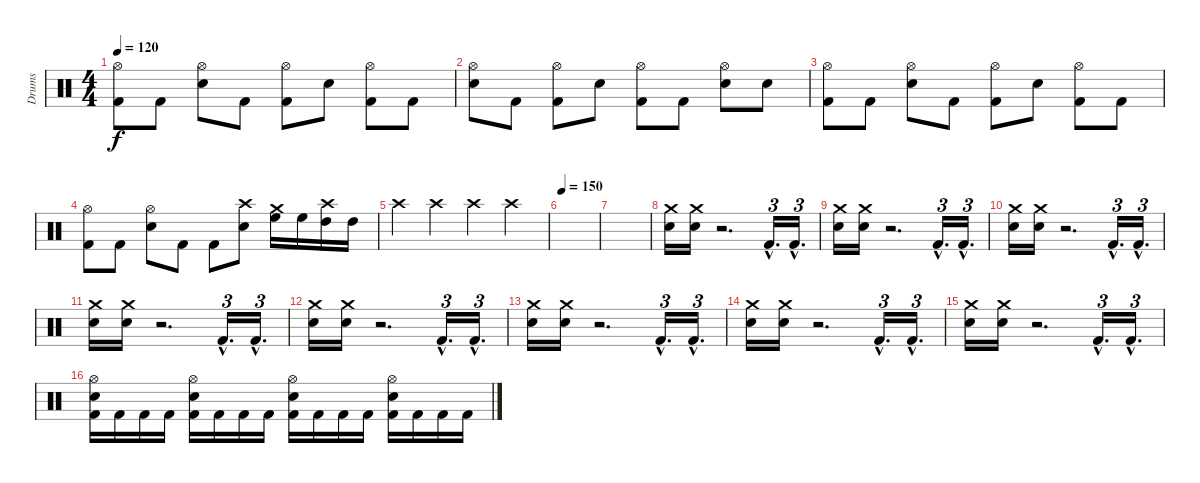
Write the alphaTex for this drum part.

\track ("Drums" "Drums") {instrument percussion}
\staff {score}
\articulation defaults
\ts (4 4)
\tempo 120
\clef neutral
\ks c
("Hi-Hat (open)" "Kick (hit) 2").8{dy f} "Kick (hit) 2".8 ("Hi-Hat (open)" "Snare (hit) 2").8 "Kick (hit) 2".8 ("Hi-Hat (open)" "Kick (hit) 2").8 "Snare (hit) 2".8 ("Hi-Hat (open)" "Kick (hit) 2").8 "Kick (hit) 2".8 |
("Hi-Hat (open)" "Snare (hit) 2").8 "Kick (hit) 2".8 ("Hi-Hat (open)" "Kick (hit) 2").8 "Snare (hit) 2".8 ("Hi-Hat (open)" "Kick (hit) 2").8 "Kick (hit) 2".8 ("Hi-Hat (open)" "Snare (hit) 2").8 "Snare (hit) 2".8 |
("Hi-Hat (open)" "Kick (hit) 2").8 "Kick (hit) 2".8 ("Hi-Hat (open)" "Snare (hit) 2").8 "Kick (hit) 2".8 ("Hi-Hat (open)" "Kick (hit) 2").8 "Snare (hit) 2".8 ("Hi-Hat (open)" "Kick (hit) 2").8 "Kick (hit) 2".8 |
("Hi-Hat (open)" "Kick (hit) 2").8 "Kick (hit) 2".8 ("Hi-Hat (open)" "Snare (hit) 2").8 "Kick (hit) 2".8 "Kick (hit) 2".8 ("Crash high (hit)" "Snare (hit) 2").8 ("Crash medium (hit)" "High Floor Tom (hit)").16 "High Floor Tom (hit)".16 ("Crash high (hit)" "High Tom (hit)").16 "High Tom (hit)".16 |
"Crash high (hit)".4 "Crash high (hit)".4 "Crash high (hit)".4 "Crash high (hit)".4 |
\tempo 150
|
|
("Crash medium (hit)" "Snare (hit) 2").16 ("Crash medium (hit)" "Snare (hit) 2").16 r.2{d} "Kick (hit) 2"{hac}.16{d tu (3 2)} "Kick (hit) 2"{hac}.16{d tu (3 2)} |
("Crash medium (hit)" "Snare (hit) 2").16 ("Crash medium (hit)" "Snare (hit) 2").16 r.2{d} "Kick (hit) 2"{hac}.16{d tu (3 2)} "Kick (hit) 2"{hac}.16{d tu (3 2)} |
("Crash medium (hit)" "Snare (hit) 2").16 ("Crash medium (hit)" "Snare (hit) 2").16 r.2{d} "Kick (hit) 2"{hac}.16{d tu (3 2)} "Kick (hit) 2"{hac}.16{d tu (3 2)} |
("Crash medium (hit)" "Snare (hit) 2").16 ("Crash medium (hit)" "Snare (hit) 2").16 r.2{d} "Kick (hit) 2"{hac}.16{d tu (3 2)} "Kick (hit) 2"{hac}.16{d tu (3 2)} |
("Crash medium (hit)" "Snare (hit) 2").16 ("Crash medium (hit)" "Snare (hit) 2").16 r.2{d} "Kick (hit) 2"{hac}.16{d tu (3 2)} "Kick (hit) 2"{hac}.16{d tu (3 2)} |
("Crash medium (hit)" "Snare (hit) 2").16 ("Crash medium (hit)" "Snare (hit) 2").16 r.2{d} "Kick (hit) 2"{hac}.16{d tu (3 2)} "Kick (hit) 2"{hac}.16{d tu (3 2)} |
("Crash medium (hit)" "Snare (hit) 2").16 ("Crash medium (hit)" "Snare (hit) 2").16 r.2{d} "Kick (hit) 2"{hac}.16{d tu (3 2)} "Kick (hit) 2"{hac}.16{d tu (3 2)} |
("Crash medium (hit)" "Snare (hit) 2").16 ("Crash medium (hit)" "Snare (hit) 2").16 r.2{d} "Kick (hit) 2"{hac}.16{d tu (3 2)} "Kick (hit) 2"{hac}.16{d tu (3 2)} |
("Hi-Hat (open)" "Snare (hit) 2" "Kick (hit) 2").16 "Kick (hit) 2".16 "Kick (hit) 2".16 "Kick (hit) 2".16 ("Hi-Hat (open)" "Snare (hit) 2" "Kick (hit) 2").16 "Kick (hit) 2".16 "Kick (hit) 2".16 "Kick (hit) 2".16 ("Hi-Hat (open)" "Snare (hit) 2" "Kick (hit) 2").16 "Kick (hit) 2".16 "Kick (hit) 2".16 "Kick (hit) 2".16 ("Hi-Hat (open)" "Snare (hit) 2" "Kick (hit) 2").16 "Kick (hit) 2".16 "Kick (hit) 2".16 "Kick (hit) 2".16
